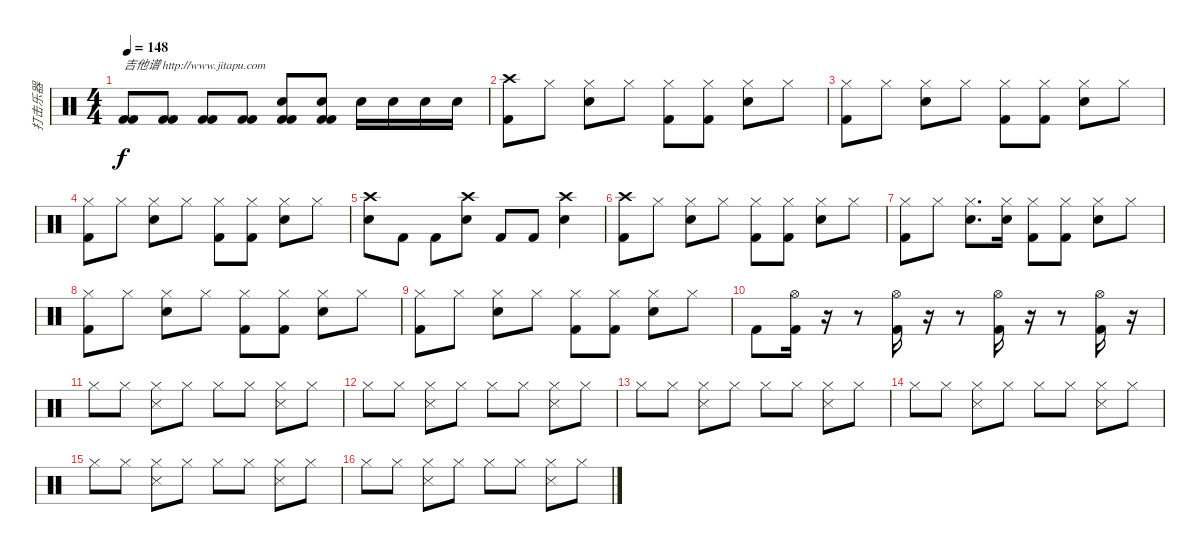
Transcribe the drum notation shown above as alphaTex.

\track ("打击乐器" "打击乐器") {instrument percussion}
\staff {score}
\articulation defaults
\ts (4 4)
\tempo 148
\clef neutral
\ks c
("Kick (hit) 2" "Kick (hit) 2").8{txt "吉他谱 http://www.jitapu.com" dy f} ("Kick (hit) 2" "Kick (hit) 2").8 ("Kick (hit) 2" "Kick (hit) 2").8 ("Kick (hit) 2" "Kick (hit) 2").8 ("Kick (hit) 2" "Kick (hit) 2" "Snare (hit) 2").8 ("Kick (hit) 2" "Kick (hit) 2" "Snare (hit) 2").8 "Electric Snare (hit)".16 "Electric Snare (hit)".16 "Electric Snare (hit)".16 "Electric Snare (hit)".16 |
("Crash high (hit)" "Kick (hit) 2").8 "Hi-Hat (closed)".8 ("Hi-Hat (closed)" "Electric Snare (hit)").8 "Hi-Hat (closed)".8 ("Hi-Hat (closed)" "Kick (hit) 2").8 ("Hi-Hat (closed)" "Kick (hit) 2").8 ("Hi-Hat (closed)" "Electric Snare (hit)").8 "Hi-Hat (closed)".8 |
("Hi-Hat (closed)" "Kick (hit) 2").8 "Hi-Hat (closed)".8 ("Hi-Hat (closed)" "Electric Snare (hit)").8 "Hi-Hat (closed)".8 ("Hi-Hat (closed)" "Kick (hit) 2").8 ("Hi-Hat (closed)" "Kick (hit) 2").8 ("Hi-Hat (closed)" "Electric Snare (hit)").8 "Hi-Hat (closed)".8 |
("Hi-Hat (closed)" "Kick (hit) 2").8 "Hi-Hat (closed)".8 ("Hi-Hat (closed)" "Electric Snare (hit)").8 "Hi-Hat (closed)".8 ("Hi-Hat (closed)" "Kick (hit) 2").8 ("Hi-Hat (closed)" "Kick (hit) 2").8 ("Hi-Hat (closed)" "Electric Snare (hit)").8 "Hi-Hat (closed)".8 |
("Crash high (hit)" "Electric Snare (hit)").8 "Kick (hit) 2".8 "Kick (hit) 2".8 ("Crash high (hit)" "Electric Snare (hit)").8 "Kick (hit) 2".8 "Kick (hit) 2".8 ("Crash high (hit)" "Electric Snare (hit)").4 |
("Crash high (hit)" "Kick (hit) 2").8 "Hi-Hat (closed)".8 ("Hi-Hat (closed)" "Electric Snare (hit)").8 "Hi-Hat (closed)".8 ("Hi-Hat (closed)" "Kick (hit) 2").8 ("Hi-Hat (closed)" "Kick (hit) 2").8 ("Hi-Hat (closed)" "Electric Snare (hit)").8 "Hi-Hat (closed)".8 |
("Hi-Hat (closed)" "Kick (hit) 2").8 "Hi-Hat (closed)".8 ("Hi-Hat (closed)" "Electric Snare (hit)").8{d} ("Hi-Hat (closed)" "Electric Snare (hit)").16 ("Hi-Hat (closed)" "Kick (hit) 2").8 ("Hi-Hat (closed)" "Kick (hit) 2").8 ("Hi-Hat (closed)" "Electric Snare (hit)").8 "Hi-Hat (closed)".8 |
("Hi-Hat (closed)" "Kick (hit) 2").8 "Hi-Hat (closed)".8 ("Hi-Hat (closed)" "Electric Snare (hit)").8 "Hi-Hat (closed)".8 ("Hi-Hat (closed)" "Kick (hit) 2").8 ("Hi-Hat (closed)" "Kick (hit) 2").8 ("Hi-Hat (closed)" "Electric Snare (hit)").8 "Hi-Hat (closed)".8 |
("Hi-Hat (closed)" "Kick (hit) 2").8 "Hi-Hat (closed)".8 ("Hi-Hat (closed)" "Electric Snare (hit)").8 "Hi-Hat (closed)".8 ("Hi-Hat (closed)" "Kick (hit) 2").8 ("Hi-Hat (closed)" "Kick (hit) 2").8 ("Hi-Hat (closed)" "Electric Snare (hit)").8 "Hi-Hat (closed)".8 |
"Kick (hit) 2".8 ("Hi-Hat (open)" "Kick (hit) 2").16 r.16 r.8 ("Hi-Hat (open)" "Kick (hit) 2").16 r.16 r.8 ("Hi-Hat (open)" "Kick (hit) 2").16 r.16 r.8 ("Hi-Hat (open)" "Kick (hit) 2").16 r.16 |
"Hi-Hat (closed)".8 "Hi-Hat (closed)".8 ("Hi-Hat (closed)" "Snare (side stick) 3").8 "Hi-Hat (closed)".8 "Hi-Hat (closed)".8 "Hi-Hat (closed)".8 ("Hi-Hat (closed)" "Snare (side stick) 3").8 "Hi-Hat (closed)".8 |
"Hi-Hat (closed)".8 "Hi-Hat (closed)".8 ("Hi-Hat (closed)" "Snare (side stick) 3").8 "Hi-Hat (closed)".8 "Hi-Hat (closed)".8 "Hi-Hat (closed)".8 ("Hi-Hat (closed)" "Snare (side stick) 3").8 "Hi-Hat (closed)".8 |
"Hi-Hat (closed)".8 "Hi-Hat (closed)".8 ("Hi-Hat (closed)" "Snare (side stick) 3").8 "Hi-Hat (closed)".8 "Hi-Hat (closed)".8 "Hi-Hat (closed)".8 ("Hi-Hat (closed)" "Snare (side stick) 3").8 "Hi-Hat (closed)".8 |
"Hi-Hat (closed)".8 "Hi-Hat (closed)".8 ("Hi-Hat (closed)" "Snare (side stick) 3").8 "Hi-Hat (closed)".8 "Hi-Hat (closed)".8 "Hi-Hat (closed)".8 ("Hi-Hat (closed)" "Snare (side stick) 3").8 "Hi-Hat (closed)".8 |
"Hi-Hat (closed)".8 "Hi-Hat (closed)".8 ("Hi-Hat (closed)" "Snare (side stick) 3").8 "Hi-Hat (closed)".8 "Hi-Hat (closed)".8 "Hi-Hat (closed)".8 ("Hi-Hat (closed)" "Snare (side stick) 3").8 "Hi-Hat (closed)".8 |
"Hi-Hat (closed)".8 "Hi-Hat (closed)".8 ("Hi-Hat (closed)" "Snare (side stick) 3").8 "Hi-Hat (closed)".8 "Hi-Hat (closed)".8 "Hi-Hat (closed)".8 ("Hi-Hat (closed)" "Snare (side stick) 3").8 "Hi-Hat (closed)".8
